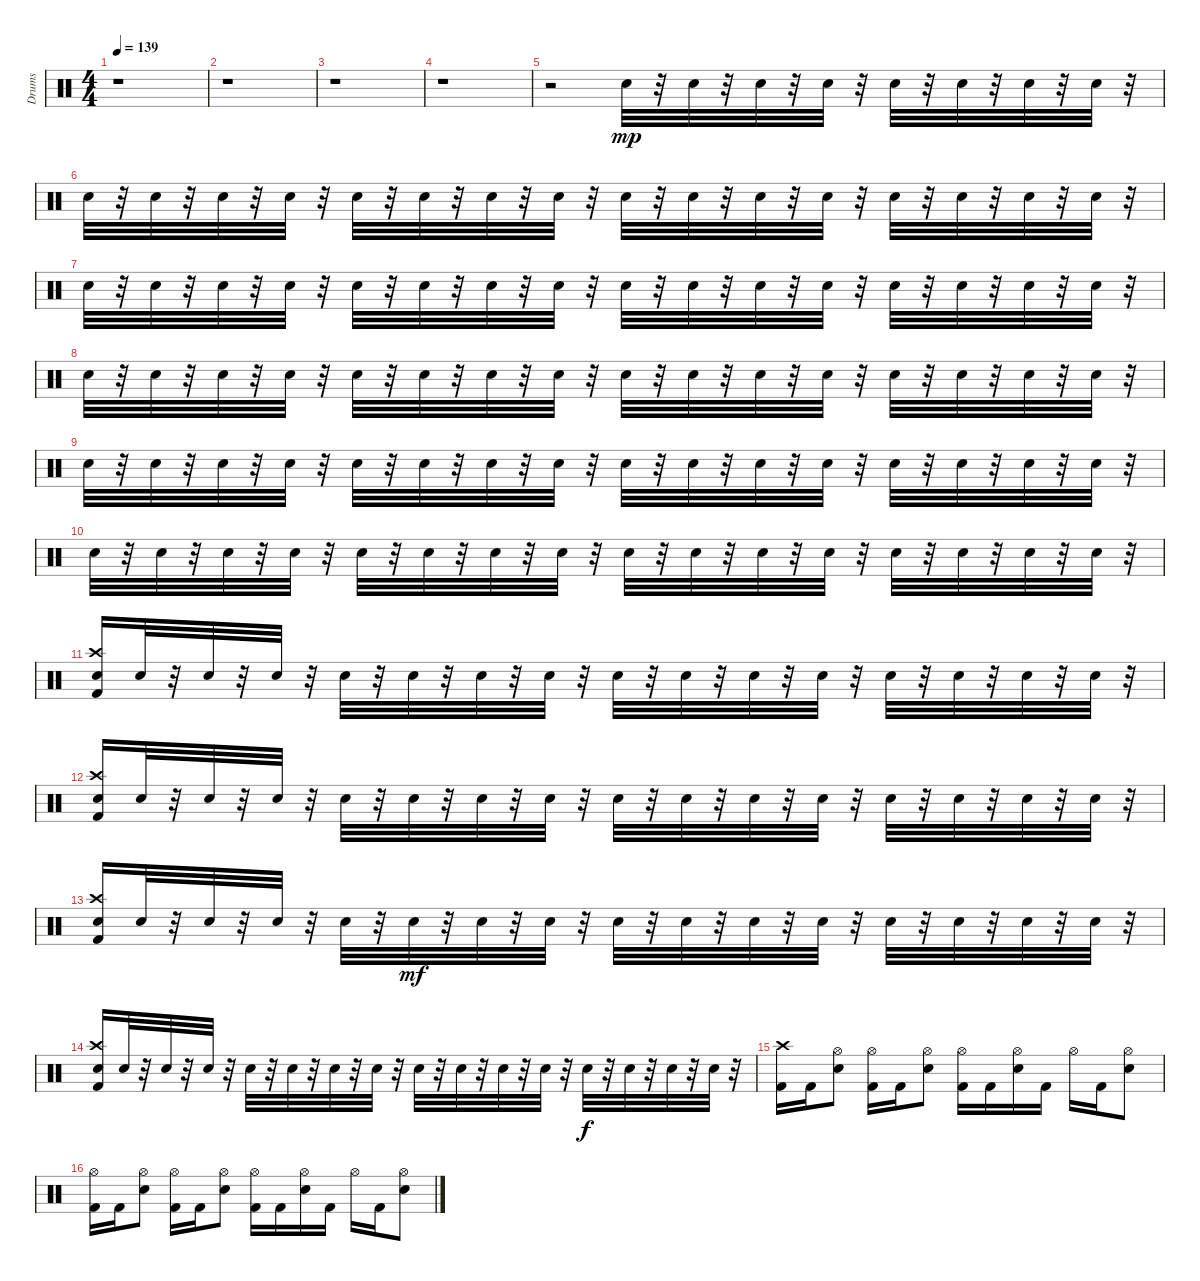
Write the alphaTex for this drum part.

\track ("Drums" "Drums") {instrument percussion}
\staff {score}
\articulation defaults
\ts (4 4)
\tempo 139
\clef neutral
\ks c
r.1{dy mp} |
r.1 |
r.1 |
r.1 |
r.2 "Electric Snare (hit)".32 r.32 "Electric Snare (hit)".32 r.32 "Electric Snare (hit)".32 r.32 "Electric Snare (hit)".32 r.32 "Electric Snare (hit)".32 r.32 "Electric Snare (hit)".32 r.32 "Electric Snare (hit)".32 r.32 "Electric Snare (hit)".32 r.32 |
"Electric Snare (hit)".32 r.32 "Electric Snare (hit)".32 r.32 "Electric Snare (hit)".32 r.32 "Electric Snare (hit)".32 r.32 "Electric Snare (hit)".32 r.32 "Electric Snare (hit)".32 r.32 "Electric Snare (hit)".32 r.32 "Electric Snare (hit)".32 r.32 "Electric Snare (hit)".32 r.32 "Electric Snare (hit)".32 r.32 "Electric Snare (hit)".32 r.32 "Electric Snare (hit)".32 r.32 "Electric Snare (hit)".32 r.32 "Electric Snare (hit)".32 r.32 "Electric Snare (hit)".32 r.32 "Electric Snare (hit)".32 r.32 |
"Electric Snare (hit)".32 r.32 "Electric Snare (hit)".32 r.32 "Electric Snare (hit)".32 r.32 "Electric Snare (hit)".32 r.32 "Electric Snare (hit)".32 r.32 "Electric Snare (hit)".32 r.32 "Electric Snare (hit)".32 r.32 "Electric Snare (hit)".32 r.32 "Electric Snare (hit)".32 r.32 "Electric Snare (hit)".32 r.32 "Electric Snare (hit)".32 r.32 "Electric Snare (hit)".32 r.32 "Electric Snare (hit)".32 r.32 "Electric Snare (hit)".32 r.32 "Electric Snare (hit)".32 r.32 "Electric Snare (hit)".32 r.32 |
"Electric Snare (hit)".32 r.32 "Electric Snare (hit)".32 r.32 "Electric Snare (hit)".32 r.32 "Electric Snare (hit)".32 r.32 "Electric Snare (hit)".32 r.32 "Electric Snare (hit)".32 r.32 "Electric Snare (hit)".32 r.32 "Electric Snare (hit)".32 r.32 "Electric Snare (hit)".32 r.32 "Electric Snare (hit)".32 r.32 "Electric Snare (hit)".32 r.32 "Electric Snare (hit)".32 r.32 "Electric Snare (hit)".32 r.32 "Electric Snare (hit)".32 r.32 "Electric Snare (hit)".32 r.32 "Electric Snare (hit)".32 r.32 |
"Electric Snare (hit)".32 r.32 "Electric Snare (hit)".32 r.32 "Electric Snare (hit)".32 r.32 "Electric Snare (hit)".32 r.32 "Electric Snare (hit)".32 r.32 "Electric Snare (hit)".32 r.32 "Electric Snare (hit)".32 r.32 "Electric Snare (hit)".32 r.32 "Electric Snare (hit)".32 r.32 "Electric Snare (hit)".32 r.32 "Electric Snare (hit)".32 r.32 "Electric Snare (hit)".32 r.32 "Electric Snare (hit)".32 r.32 "Electric Snare (hit)".32 r.32 "Electric Snare (hit)".32 r.32 "Electric Snare (hit)".32 r.32 |
"Electric Snare (hit)".32 r.32 "Electric Snare (hit)".32 r.32 "Electric Snare (hit)".32 r.32 "Electric Snare (hit)".32 r.32 "Electric Snare (hit)".32 r.32 "Electric Snare (hit)".32 r.32 "Electric Snare (hit)".32 r.32 "Electric Snare (hit)".32 r.32 "Electric Snare (hit)".32 r.32 "Electric Snare (hit)".32 r.32 "Electric Snare (hit)".32 r.32 "Electric Snare (hit)".32 r.32 "Electric Snare (hit)".32 r.32 "Electric Snare (hit)".32 r.32 "Electric Snare (hit)".32 r.32 "Electric Snare (hit)".32 r.32 |
("Electric Snare (hit)" "Crash high (hit)" "Kick (hit) 2").16 "Electric Snare (hit)".32 r.32 "Electric Snare (hit)".32 r.32 "Electric Snare (hit)".32 r.32 "Electric Snare (hit)".32 r.32 "Electric Snare (hit)".32 r.32 "Electric Snare (hit)".32 r.32 "Electric Snare (hit)".32 r.32 "Electric Snare (hit)".32 r.32 "Electric Snare (hit)".32 r.32 "Electric Snare (hit)".32 r.32 "Electric Snare (hit)".32 r.32 "Electric Snare (hit)".32 r.32 "Electric Snare (hit)".32 r.32 "Electric Snare (hit)".32 r.32 "Electric Snare (hit)".32 r.32 |
("Electric Snare (hit)" "Crash high (hit)" "Kick (hit) 2").16 "Electric Snare (hit)".32 r.32 "Electric Snare (hit)".32 r.32 "Electric Snare (hit)".32 r.32 "Electric Snare (hit)".32 r.32 "Electric Snare (hit)".32 r.32 "Electric Snare (hit)".32 r.32 "Electric Snare (hit)".32 r.32 "Electric Snare (hit)".32 r.32 "Electric Snare (hit)".32 r.32 "Electric Snare (hit)".32 r.32 "Electric Snare (hit)".32 r.32 "Electric Snare (hit)".32 r.32 "Electric Snare (hit)".32 r.32 "Electric Snare (hit)".32 r.32 "Electric Snare (hit)".32 r.32 |
("Electric Snare (hit)" "Crash high (hit)" "Kick (hit) 2").16 "Electric Snare (hit)".32 r.32 "Electric Snare (hit)".32 r.32 "Electric Snare (hit)".32 r.32 "Electric Snare (hit)".32 r.32 "Electric Snare (hit)".32{dy mf} r.32 "Electric Snare (hit)".32 r.32 "Electric Snare (hit)".32 r.32 "Electric Snare (hit)".32 r.32 "Electric Snare (hit)".32 r.32 "Electric Snare (hit)".32 r.32 "Electric Snare (hit)".32 r.32 "Electric Snare (hit)".32 r.32 "Electric Snare (hit)".32 r.32 "Electric Snare (hit)".32 r.32 "Electric Snare (hit)".32 r.32 |
("Crash high (hit)" "Kick (hit) 2" "Electric Snare (hit)").16 "Electric Snare (hit)".32 r.32 "Electric Snare (hit)".32 r.32 "Electric Snare (hit)".32 r.32 "Electric Snare (hit)".32 r.32 "Electric Snare (hit)".32 r.32 "Electric Snare (hit)".32 r.32 "Electric Snare (hit)".32 r.32 "Electric Snare (hit)".32 r.32 "Electric Snare (hit)".32 r.32 "Electric Snare (hit)".32 r.32 "Electric Snare (hit)".32 r.32 "Electric Snare (hit)".32{dy f} r.32 "Electric Snare (hit)".32 r.32 "Electric Snare (hit)".32 r.32 "Electric Snare (hit)".32 r.32 |
("Crash high (hit)" "Kick (hit) 2").16 "Kick (hit) 2".16 ("Hi-Hat (open)" "Electric Snare (hit)").8 ("Hi-Hat (open)" "Kick (hit) 2").16 "Kick (hit) 2".16 ("Hi-Hat (open)" "Electric Snare (hit)").8 ("Hi-Hat (open)" "Kick (hit) 2").16 "Kick (hit) 2".16 ("Hi-Hat (open)" "Electric Snare (hit)").16 "Kick (hit) 2".16 "Hi-Hat (open)".16 "Kick (hit) 2".16 ("Hi-Hat (open)" "Electric Snare (hit)").8 |
("Kick (hit) 2" "Hi-Hat (open)").16 "Kick (hit) 2".16 ("Hi-Hat (open)" "Electric Snare (hit)").8 ("Hi-Hat (open)" "Kick (hit) 2").16 "Kick (hit) 2".16 ("Hi-Hat (open)" "Electric Snare (hit)").8 ("Hi-Hat (open)" "Kick (hit) 2").16 "Kick (hit) 2".16 ("Hi-Hat (open)" "Electric Snare (hit)").16 "Kick (hit) 2".16 "Hi-Hat (open)".16 "Kick (hit) 2".16 ("Hi-Hat (open)" "Electric Snare (hit)").8
